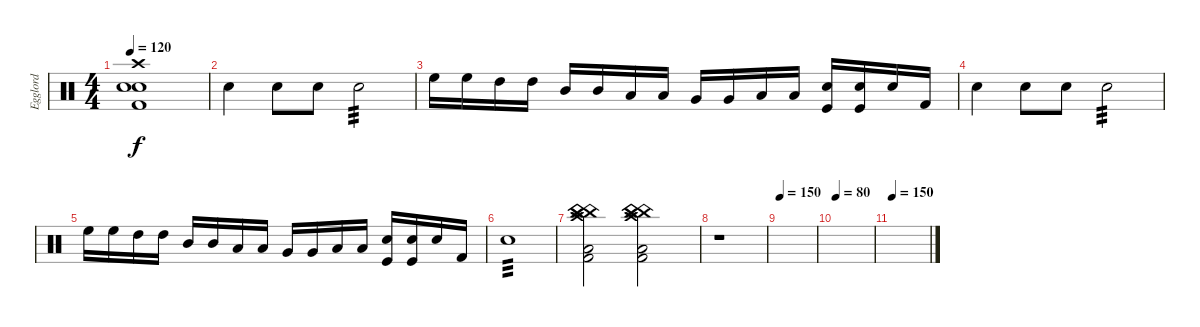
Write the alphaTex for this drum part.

\track ("Egglord" "Egglord") {instrument percussion}
\staff {score}
\articulation defaults
\ts (4 4)
\tempo 120
\clef neutral
\ks c
("Crash high (hit)" "Electric Snare (hit)" "Snare (hit) 2" "Kick (hit) 2").1{dy f} |
"Electric Snare (hit)".4 "Electric Snare (hit)".8 "Electric Snare (hit)".8 "Electric Snare (hit)".2{tp 3} |
"High Floor Tom (hit)".16 "High Floor Tom (hit)".16 "High Tom (hit)".16 "High Tom (hit)".16 "Mid Tom (hit)".16 "Mid Tom (hit)".16 "Low Tom (hit)".16 "Low Tom (hit)".16 "Very Low Tom (hit)".16 "Very Low Tom (hit)".16 "Low Floor Tom (hit)".16 "Low Floor Tom (hit)".16 ("Snare (hit) 2" "Kick (hit)").16 ("Snare (hit) 2" "Kick (hit)").16 "Snare (hit) 2".16 "Kick (hit) 2".16 |
"Electric Snare (hit)".4 "Electric Snare (hit)".8 "Electric Snare (hit)".8 "Electric Snare (hit)".2{tp 3} |
"High Floor Tom (hit)".16 "High Floor Tom (hit)".16 "High Tom (hit)".16 "High Tom (hit)".16 "Mid Tom (hit)".16 "Mid Tom (hit)".16 "Low Tom (hit)".16 "Low Tom (hit)".16 "Very Low Tom (hit)".16 "Very Low Tom (hit)".16 "Low Floor Tom (hit)".16 "Low Floor Tom (hit)".16 ("Snare (hit) 2" "Kick (hit)").16 ("Snare (hit) 2" "Kick (hit)").16 "Snare (hit) 2".16 "Kick (hit) 2".16 |
"Electric Snare (hit)".1{tp 3} |
("China (hit)" "China (hit)" "Crash high (hit)" "China (hit)" "Low Floor Tom (hit)" "Kick (hit) 2").2 ("China (hit)" "China (hit)" "Crash high (hit)" "China (hit)" "Low Floor Tom (hit)" "Kick (hit) 2").2 |
r.1 |
\tempo 150
|
\tempo 80
|
\tempo 150
